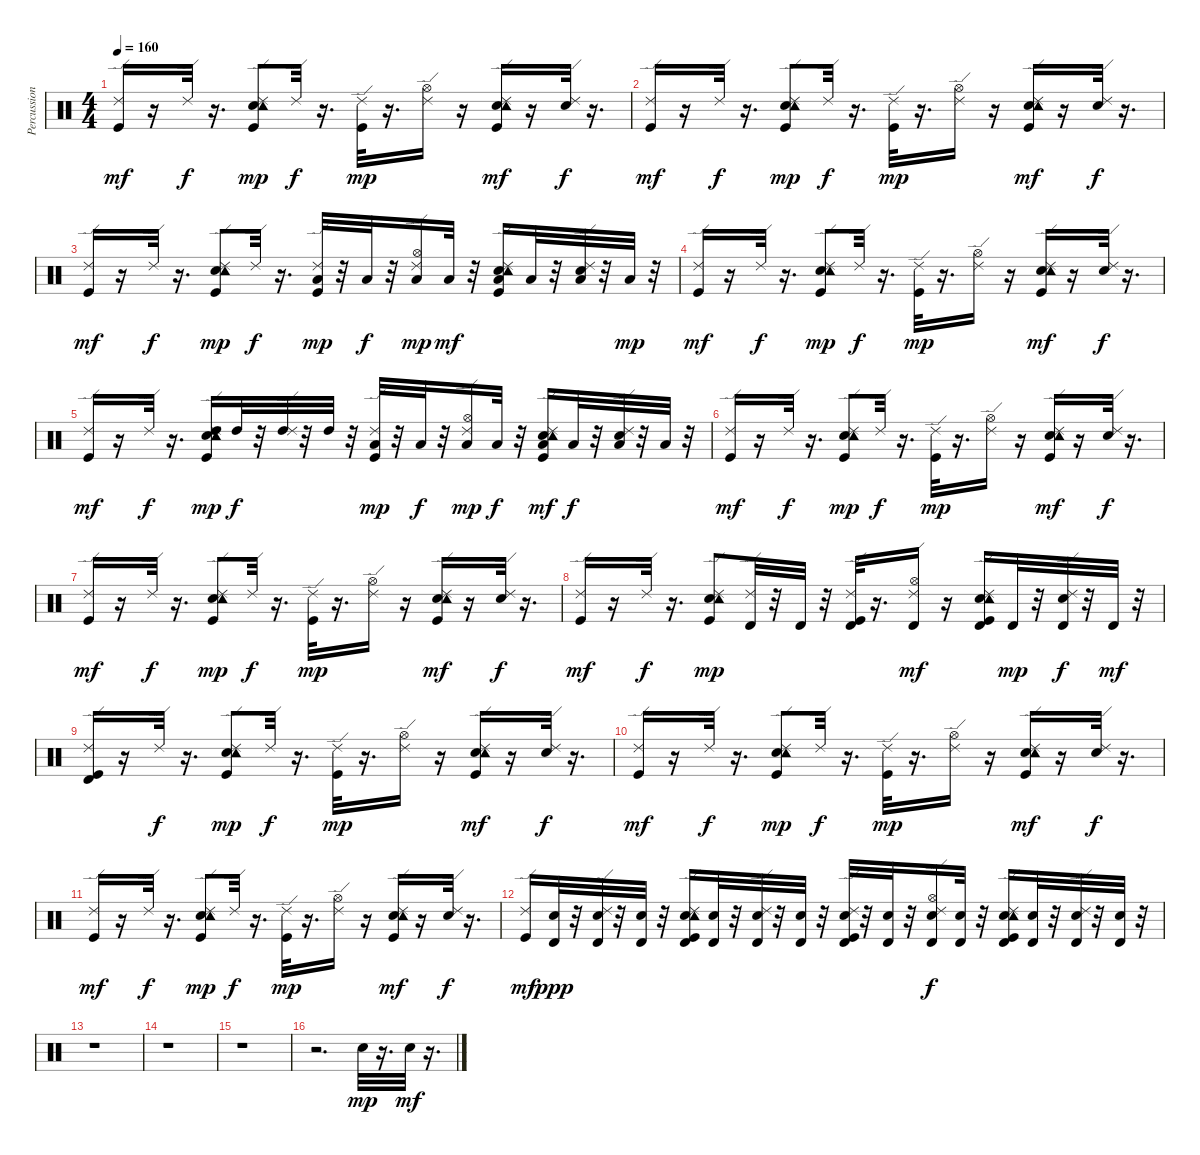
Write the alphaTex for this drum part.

\track ("Percussion" "Percussion") {instrument percussion}
\staff {score}
\articulation defaults
\ts (4 4)
\tempo 160
\clef neutral
\ks c
("Kick (hit)" "Ride (edge) 2").16{dy mf} r.16 "Ride (edge) 2".32{dy f} r.16{d} ("Kick (hit)" "Electric Snare (hit)" "Tambourine (hit)" "Ride (edge) 2").8{dy mp} "Ride (edge) 2".32{dy f} r.16{d} ("Kick (hit)" "Ride (edge) 2").32{dy mp} r.16{d} ("Hi-Hat (open)" "Ride (edge) 2").16 r.16 ("Kick (hit)" "Electric Snare (hit)" "Tambourine (hit)" "Ride (edge) 2").16{dy mf} r.16 ("Electric Snare (hit)" "Ride (edge) 2").32{dy f} r.16{d} |
("Kick (hit)" "Ride (edge) 2").16{dy mf} r.16 "Ride (edge) 2".32{dy f} r.16{d} ("Kick (hit)" "Electric Snare (hit)" "Tambourine (hit)" "Ride (edge) 2").8{dy mp} "Ride (edge) 2".32{dy f} r.16{d} ("Kick (hit)" "Ride (edge) 2").32{dy mp} r.16{d} ("Hi-Hat (open)" "Ride (edge) 2").16 r.16 ("Kick (hit)" "Electric Snare (hit)" "Tambourine (hit)" "Ride (edge) 2").16{dy mf} r.16 ("Electric Snare (hit)" "Ride (edge) 2").32{dy f} r.16{d} |
("Kick (hit)" "Ride (edge) 2").16{dy mf} r.16 "Ride (edge) 2".32{dy f} r.16{d} ("Kick (hit)" "Electric Snare (hit)" "Tambourine (hit)" "Ride (edge) 2").8{dy mp} "Ride (edge) 2".32{dy f} r.16{d} ("Kick (hit)" "Low Floor Tom (hit)" "Ride (edge) 2").32{dy mp} r.32 "Low Floor Tom (hit)".32{dy f} r.32 ("Low Floor Tom (hit)" "Hi-Hat (open)" "Ride (edge) 2").16{dy mp} "Low Floor Tom (hit)".32{dy mf} r.32 ("Kick (hit)" "Electric Snare (hit)" "Low Tom (hit)" "Tambourine (hit)" "Ride (edge) 2").16 "Low Tom (hit)".32 r.32 ("Electric Snare (hit)" "Low Tom (hit)" "Ride (edge) 2").32 r.32 "Low Tom (hit)".32{dy mp} r.32 |
("Kick (hit)" "Ride (edge) 2").16{dy mf} r.16 "Ride (edge) 2".32{dy f} r.16{d} ("Kick (hit)" "Electric Snare (hit)" "Tambourine (hit)" "Ride (edge) 2").8{dy mp} "Ride (edge) 2".32{dy f} r.16{d} ("Kick (hit)" "Ride (edge) 2").32{dy mp} r.16{d} ("Hi-Hat (open)" "Ride (edge) 2").16 r.16 ("Kick (hit)" "Electric Snare (hit)" "Tambourine (hit)" "Ride (edge) 2").16{dy mf} r.16 ("Electric Snare (hit)" "Ride (edge) 2").32{dy f} r.16{d} |
("Kick (hit)" "Ride (edge) 2").16{dy mf} r.16 "Ride (edge) 2".32{dy f} r.16{d} ("Kick (hit)" "Electric Snare (hit)" "High Tom (hit)" "Tambourine (hit)" "Ride (edge) 2").16{dy mp} "High Tom (hit)".32{dy f} r.32 ("High Tom (hit)" "Ride (edge) 2").32 r.32 "High Tom (hit)".32 r.32 ("Kick (hit)" "Low Tom (hit)" "Ride (edge) 2").32{dy mp} r.32 "Low Tom (hit)".32{dy f} r.32 ("Low Tom (hit)" "Hi-Hat (open)" "Ride (edge) 2").16{dy mp} "Low Tom (hit)".32{dy f} r.32 ("Kick (hit)" "Electric Snare (hit)" "Low Floor Tom (hit)" "Tambourine (hit)" "Ride (edge) 2").16{dy mf} "Low Floor Tom (hit)".32{dy f} r.32 ("Electric Snare (hit)" "Low Floor Tom (hit)" "Ride (edge) 2").32 r.32 "Low Floor Tom (hit)".32 r.32 |
("Kick (hit)" "Ride (edge) 2").16{dy mf} r.16 "Ride (edge) 2".32{dy f} r.16{d} ("Kick (hit)" "Electric Snare (hit)" "Tambourine (hit)" "Ride (edge) 2").8{dy mp} "Ride (edge) 2".32{dy f} r.16{d} ("Kick (hit)" "Ride (edge) 2").32{dy mp} r.16{d} ("Hi-Hat (open)" "Ride (edge) 2").16 r.16 ("Kick (hit)" "Electric Snare (hit)" "Tambourine (hit)" "Ride (edge) 2").16{dy mf} r.16 ("Electric Snare (hit)" "Ride (edge) 2").32{dy f} r.16{d} |
("Kick (hit)" "Ride (edge) 2").16{dy mf} r.16 "Ride (edge) 2".32{dy f} r.16{d} ("Kick (hit)" "Electric Snare (hit)" "Tambourine (hit)" "Ride (edge) 2").8{dy mp} "Ride (edge) 2".32{dy f} r.16{d} ("Kick (hit)" "Ride (edge) 2").32{dy mp} r.16{d} ("Hi-Hat (open)" "Ride (edge) 2").16 r.16 ("Kick (hit)" "Electric Snare (hit)" "Tambourine (hit)" "Ride (edge) 2").16{dy mf} r.16 ("Electric Snare (hit)" "Ride (edge) 2").32{dy f} r.16{d} |
("Kick (hit)" "Ride (edge) 2").16{dy mf} r.16 "Ride (edge) 2".32{dy f} r.16{d} ("Kick (hit)" "Electric Snare (hit)" "Tambourine (hit)" "Ride (edge) 2").8{dy mp} ("Ride (edge) 2" "Timbale high (hit)").32 r.32 "Timbale high (hit)".32 r.32 ("Kick (hit)" "Ride (edge) 2" "Timbale high (hit)").32 r.16{d} ("Hi-Hat (open)" "Ride (edge) 2" "Timbale high (hit)").16{dy mf} r.16 ("Kick (hit)" "Electric Snare (hit)" "Tambourine (hit)" "Ride (edge) 2" "Timbale high (hit)").16 "Timbale high (hit)".32{dy mp} r.32 ("Electric Snare (hit)" "Ride (edge) 2" "Timbale high (hit)").32{dy f} r.32 "Timbale high (hit)".32{dy mf} r.32 |
("Kick (hit)" "Ride (edge) 2" "Timbale high (hit)").16 r.16 "Ride (edge) 2".32{dy f} r.16{d} ("Kick (hit)" "Electric Snare (hit)" "Tambourine (hit)" "Ride (edge) 2").8{dy mp} "Ride (edge) 2".32{dy f} r.16{d} ("Kick (hit)" "Ride (edge) 2").32{dy mp} r.16{d} ("Hi-Hat (open)" "Ride (edge) 2").16 r.16 ("Kick (hit)" "Electric Snare (hit)" "Tambourine (hit)" "Ride (edge) 2").16{dy mf} r.16 ("Electric Snare (hit)" "Ride (edge) 2").32{dy f} r.16{d} |
("Kick (hit)" "Ride (edge) 2").16{dy mf} r.16 "Ride (edge) 2".32{dy f} r.16{d} ("Kick (hit)" "Electric Snare (hit)" "Tambourine (hit)" "Ride (edge) 2").8{dy mp} "Ride (edge) 2".32{dy f} r.16{d} ("Kick (hit)" "Ride (edge) 2").32{dy mp} r.16{d} ("Hi-Hat (open)" "Ride (edge) 2").16 r.16 ("Kick (hit)" "Electric Snare (hit)" "Tambourine (hit)" "Ride (edge) 2").16{dy mf} r.16 ("Electric Snare (hit)" "Ride (edge) 2").32{dy f} r.16{d} |
("Kick (hit)" "Ride (edge) 2").16{dy mf} r.16 "Ride (edge) 2".32{dy f} r.16{d} ("Kick (hit)" "Electric Snare (hit)" "Tambourine (hit)" "Ride (edge) 2").8{dy mp} "Ride (edge) 2".32{dy f} r.16{d} ("Kick (hit)" "Ride (edge) 2").32{dy mp} r.16{d} ("Hi-Hat (open)" "Ride (edge) 2").16 r.16 ("Kick (hit)" "Electric Snare (hit)" "Tambourine (hit)" "Ride (edge) 2").16{dy mf} r.16 ("Electric Snare (hit)" "Ride (edge) 2").32{dy f} r.16{d} |
("Kick (hit)" "Ride (edge) 2").16{dy mf} ("Snare (hit) 2" "Timbale high (hit)").32{dy ppp} r.32 ("Snare (hit) 2" "Ride (edge) 2" "Timbale high (hit)").32 r.32 ("Snare (hit) 2" "Timbale high (hit)").32 r.32 ("Kick (hit)" "Snare (hit) 2" "Tambourine (hit)" "Ride (edge) 2" "Timbale high (hit)").16 ("Snare (hit) 2" "Timbale high (hit)").32 r.32 ("Snare (hit) 2" "Ride (edge) 2" "Timbale high (hit)").32 r.32 ("Snare (hit) 2" "Timbale high (hit)").32 r.32 ("Kick (hit)" "Snare (hit) 2" "Ride (edge) 2" "Timbale high (hit)").32 r.32 ("Snare (hit) 2" "Timbale high (hit)").32 r.32 ("Snare (hit) 2" "Hi-Hat (open)" "Ride (edge) 2" "Timbale high (hit)").16{dy f} ("Snare (hit) 2" "Timbale high (hit)").32 r.32 ("Kick (hit)" "Snare (hit) 2" "Tambourine (hit)" "Ride (edge) 2" "Timbale high (hit)").16 ("Snare (hit) 2" "Timbale high (hit)").32 r.32 ("Snare (hit) 2" "Ride (edge) 2" "Timbale high (hit)").32 r.32 ("Snare (hit) 2" "Timbale high (hit)").32 r.32 |
r.1 |
r.1 |
r.1 |
r.2{d} "Snare (hit) 2".32{dy mp} r.16{d} "Snare (hit) 2".32{dy mf} r.16{d}
